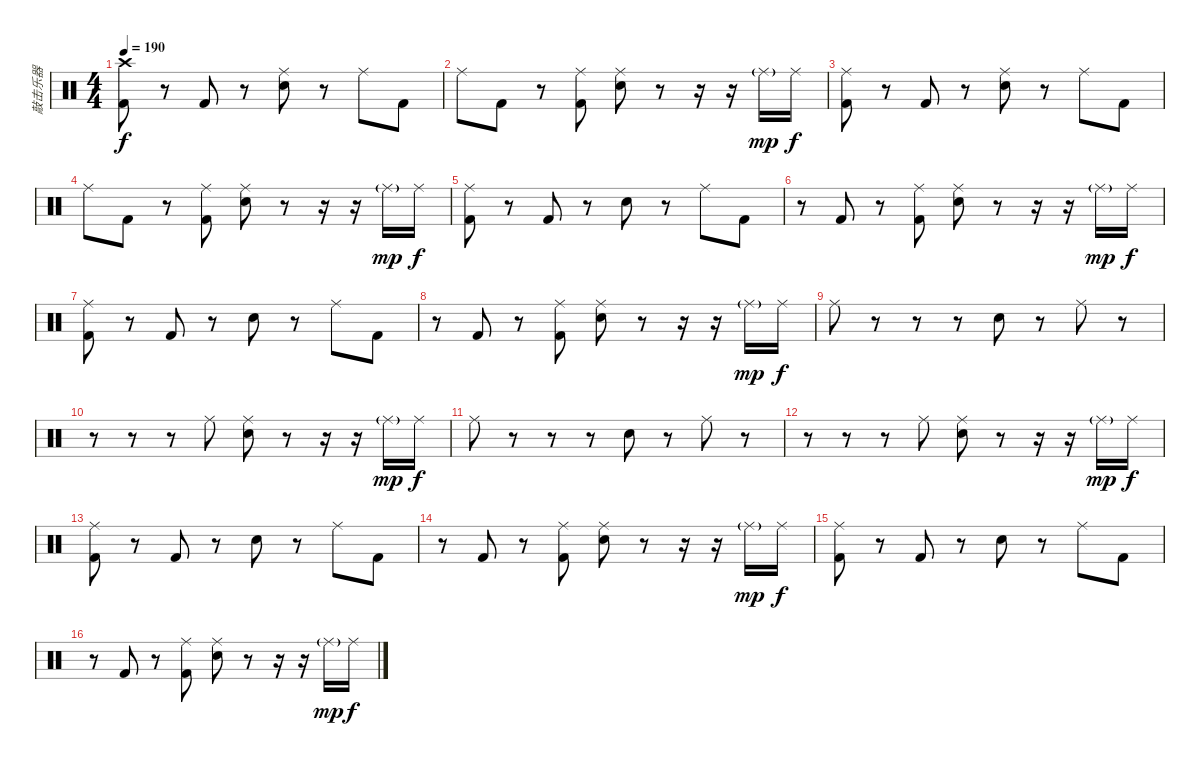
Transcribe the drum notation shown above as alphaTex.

\track ("敲击乐器" "敲击乐器") {instrument percussion}
\staff {score}
\articulation defaults
\ts (4 4)
\tempo 190
\clef neutral
\ks c
("Crash high (hit)" "Kick (hit) 2").8{dy f} r.8 "Kick (hit) 2".8 r.8 ("Ride (middle)" "Electric Snare (hit)").8 r.8 "Ride (middle)".8 "Kick (hit) 2".8 |
"Ride (middle)".8 "Kick (hit) 2".8 r.8 ("Ride (middle)" "Kick (hit) 2").8 ("Ride (middle)" "Electric Snare (hit)").8 r.8 r.16 r.16 "Ride (middle)"{g}.16{dy mp} "Ride (middle)".16{dy f} |
("Ride (middle)" "Kick (hit) 2").8 r.8 "Kick (hit) 2".8 r.8 ("Ride (middle)" "Electric Snare (hit)").8 r.8 "Ride (middle)".8 "Kick (hit) 2".8 |
"Ride (middle)".8 "Kick (hit) 2".8 r.8 ("Ride (middle)" "Kick (hit) 2").8 ("Ride (middle)" "Electric Snare (hit)").8 r.8 r.16 r.16 "Ride (middle)"{g}.16{dy mp} "Ride (middle)".16{dy f} |
("Ride (middle)" "Kick (hit) 2").8 r.8 "Kick (hit) 2".8 r.8 "Electric Snare (hit)".8 r.8 "Ride (middle)".8 "Kick (hit) 2".8 |
r.8 "Kick (hit) 2".8 r.8 ("Ride (middle)" "Kick (hit) 2").8 ("Ride (middle)" "Electric Snare (hit)").8 r.8 r.16 r.16 "Ride (middle)"{g}.16{dy mp} "Ride (middle)".16{dy f} |
("Ride (middle)" "Kick (hit) 2").8 r.8 "Kick (hit) 2".8 r.8 "Electric Snare (hit)".8 r.8 "Ride (middle)".8 "Kick (hit) 2".8 |
r.8 "Kick (hit) 2".8 r.8 ("Ride (middle)" "Kick (hit) 2").8 ("Ride (middle)" "Electric Snare (hit)").8 r.8 r.16 r.16 "Ride (middle)"{g}.16{dy mp} "Ride (middle)".16{dy f} |
"Ride (middle)".8 r.8 r.8 r.8 "Electric Snare (hit)".8 r.8 "Ride (middle)".8 r.8 |
r.8 r.8 r.8 "Ride (middle)".8 ("Ride (middle)" "Electric Snare (hit)").8 r.8 r.16 r.16 "Ride (middle)"{g}.16{dy mp} "Ride (middle)".16{dy f} |
"Ride (middle)".8 r.8 r.8 r.8 "Electric Snare (hit)".8 r.8 "Ride (middle)".8 r.8 |
r.8 r.8 r.8 "Ride (middle)".8 ("Ride (middle)" "Electric Snare (hit)").8 r.8 r.16 r.16 "Ride (middle)"{g}.16{dy mp} "Ride (middle)".16{dy f} |
("Ride (middle)" "Kick (hit) 2").8 r.8 "Kick (hit) 2".8 r.8 "Electric Snare (hit)".8 r.8 "Ride (middle)".8 "Kick (hit) 2".8 |
r.8 "Kick (hit) 2".8 r.8 ("Ride (middle)" "Kick (hit) 2").8 ("Ride (middle)" "Electric Snare (hit)").8 r.8 r.16 r.16 "Ride (middle)"{g}.16{dy mp} "Ride (middle)".16{dy f} |
("Ride (middle)" "Kick (hit) 2").8 r.8 "Kick (hit) 2".8 r.8 "Electric Snare (hit)".8 r.8 "Ride (middle)".8 "Kick (hit) 2".8 |
r.8 "Kick (hit) 2".8 r.8 ("Ride (middle)" "Kick (hit) 2").8 ("Ride (middle)" "Electric Snare (hit)").8 r.8 r.16 r.16 "Ride (middle)"{g}.16{dy mp} "Ride (middle)".16{dy f}
